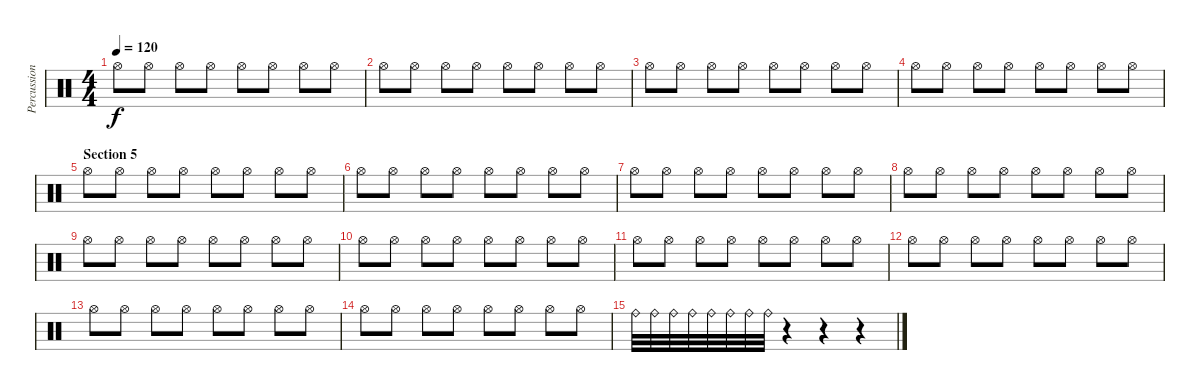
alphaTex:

\track ("Percussions" "Percussion") {instrument percussion}
\staff {score}
\articulation defaults
\ts (4 4)
\tempo 120
\clef neutral
\ks c "Hi-Hat (open)".8{dy f} "Hi-Hat (open)".8 "Hi-Hat (open)".8 "Hi-Hat (open)".8 "Hi-Hat (open)".8 "Hi-Hat (open)".8 "Hi-Hat (open)".8 "Hi-Hat (open)".8
|
"Hi-Hat (open)".8 "Hi-Hat (open)".8 "Hi-Hat (open)".8 "Hi-Hat (open)".8 "Hi-Hat (open)".8 "Hi-Hat (open)".8 "Hi-Hat (open)".8 "Hi-Hat (open)".8 |
"Hi-Hat (open)".8 "Hi-Hat (open)".8 "Hi-Hat (open)".8 "Hi-Hat (open)".8 "Hi-Hat (open)".8 "Hi-Hat (open)".8 "Hi-Hat (open)".8 "Hi-Hat (open)".8 |
"Hi-Hat (open)".8 "Hi-Hat (open)".8 "Hi-Hat (open)".8 "Hi-Hat (open)".8 "Hi-Hat (open)".8 "Hi-Hat (open)".8 "Hi-Hat (open)".8 "Hi-Hat (open)".8 |
\section ("" "Section 5")
"Hi-Hat (open)".8 "Hi-Hat (open)".8 "Hi-Hat (open)".8 "Hi-Hat (open)".8 "Hi-Hat (open)".8 "Hi-Hat (open)".8 "Hi-Hat (open)".8 "Hi-Hat (open)".8 |
"Hi-Hat (open)".8 "Hi-Hat (open)".8 "Hi-Hat (open)".8 "Hi-Hat (open)".8 "Hi-Hat (open)".8 "Hi-Hat (open)".8 "Hi-Hat (open)".8 "Hi-Hat (open)".8 |
"Hi-Hat (open)".8 "Hi-Hat (open)".8 "Hi-Hat (open)".8 "Hi-Hat (open)".8 "Hi-Hat (open)".8 "Hi-Hat (open)".8 "Hi-Hat (open)".8 "Hi-Hat (open)".8 |
"Hi-Hat (open)".8 "Hi-Hat (open)".8 "Hi-Hat (open)".8 "Hi-Hat (open)".8 "Hi-Hat (open)".8 "Hi-Hat (open)".8 "Hi-Hat (open)".8 "Hi-Hat (open)".8 |
"Hi-Hat (open)".8 "Hi-Hat (open)".8 "Hi-Hat (open)".8 "Hi-Hat (open)".8 "Hi-Hat (open)".8 "Hi-Hat (open)".8 "Hi-Hat (open)".8 "Hi-Hat (open)".8 |
"Hi-Hat (open)".8 "Hi-Hat (open)".8 "Hi-Hat (open)".8 "Hi-Hat (open)".8 "Hi-Hat (open)".8 "Hi-Hat (open)".8 "Hi-Hat (open)".8 "Hi-Hat (open)".8 |
"Hi-Hat (open)".8 "Hi-Hat (open)".8 "Hi-Hat (open)".8 "Hi-Hat (open)".8 "Hi-Hat (open)".8 "Hi-Hat (open)".8 "Hi-Hat (open)".8 "Hi-Hat (open)".8 |
"Hi-Hat (open)".8 "Hi-Hat (open)".8 "Hi-Hat (open)".8 "Hi-Hat (open)".8 "Hi-Hat (open)".8 "Hi-Hat (open)".8 "Hi-Hat (open)".8 "Hi-Hat (open)".8 |
"Hi-Hat (open)".8 "Hi-Hat (open)".8 "Hi-Hat (open)".8 "Hi-Hat (open)".8 "Hi-Hat (open)".8 "Hi-Hat (open)".8 "Hi-Hat (open)".8 "Hi-Hat (open)".8 |
"Hi-Hat (open)".8 "Hi-Hat (open)".8 "Hi-Hat (open)".8 "Hi-Hat (open)".8 "Hi-Hat (open)".8 "Hi-Hat (open)".8 "Hi-Hat (open)".8 "Hi-Hat (open)".8 |
"Ride (bell)".32 "Ride (bell)".32 "Ride (bell)".32 "Ride (bell)".32 "Ride (bell)".32 "Ride (bell)".32 "Ride (bell)".32 "Ride (bell)".32 r.4 r.4 r.4
